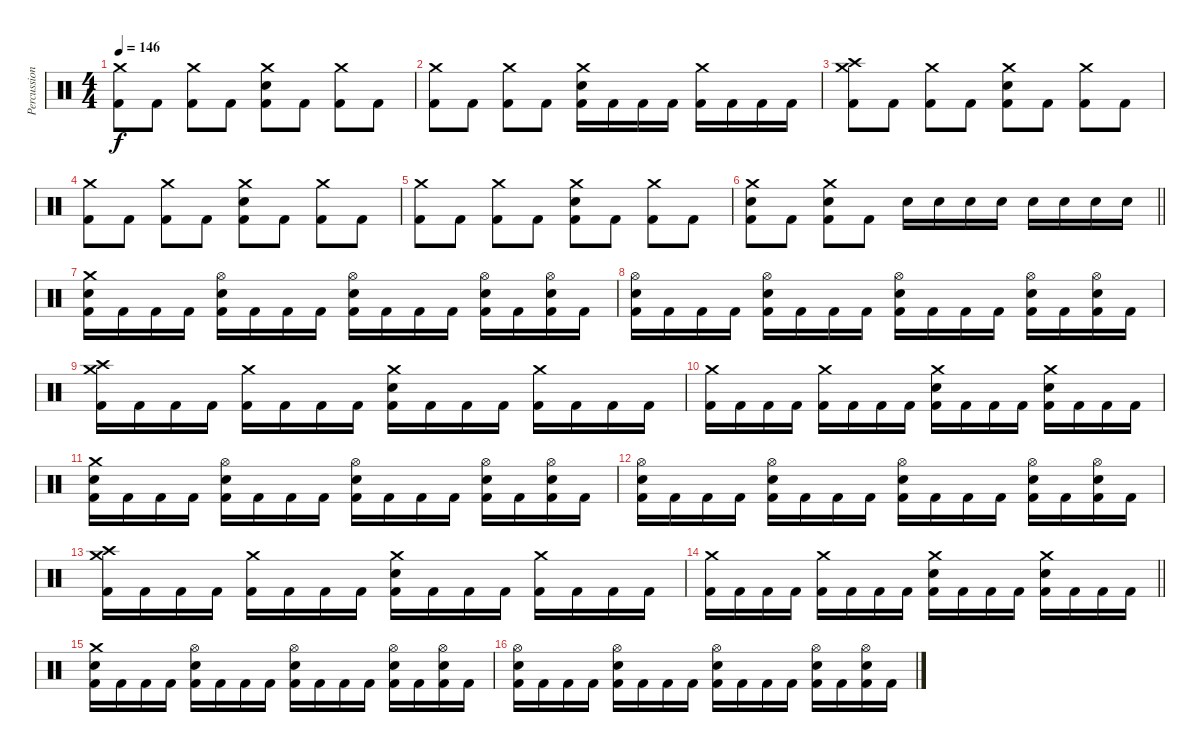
\track ("Percussion" "Percussion") {instrument percussion}
\staff {score}
\articulation defaults
\ts (4 4)
\tempo 146
\clef neutral
\ks c
("Crash medium (hit)" "Kick (hit) 2").8{dy f} "Kick (hit) 2".8 ("Crash medium (hit)" "Kick (hit) 2").8 "Kick (hit) 2".8 ("Crash medium (hit)" "Snare (hit) 2" "Kick (hit) 2").8 "Kick (hit) 2".8 ("Crash medium (hit)" "Kick (hit) 2").8 "Kick (hit) 2".8 |
("Crash medium (hit)" "Kick (hit) 2").8 "Kick (hit) 2".8 ("Crash medium (hit)" "Kick (hit) 2").8 "Kick (hit) 2".8 ("Crash medium (hit)" "Snare (hit) 2" "Kick (hit) 2").16 "Kick (hit) 2".16 "Kick (hit) 2".16 "Kick (hit) 2".16 ("Crash medium (hit)" "Kick (hit) 2").16 "Kick (hit) 2".16 "Kick (hit) 2".16 "Kick (hit) 2".16 |
("Crash high (hit)" "Crash medium (hit)" "Kick (hit) 2").8 "Kick (hit) 2".8 ("Crash medium (hit)" "Kick (hit) 2").8 "Kick (hit) 2".8 ("Crash medium (hit)" "Snare (hit) 2" "Kick (hit) 2").8 "Kick (hit) 2".8 ("Crash medium (hit)" "Kick (hit) 2").8 "Kick (hit) 2".8 |
("Crash medium (hit)" "Kick (hit) 2").8 "Kick (hit) 2".8 ("Crash medium (hit)" "Kick (hit) 2").8 "Kick (hit) 2".8 ("Crash medium (hit)" "Snare (hit) 2" "Kick (hit) 2").8 "Kick (hit) 2".8 ("Crash medium (hit)" "Kick (hit) 2").8 "Kick (hit) 2".8 |
("Crash medium (hit)" "Kick (hit) 2").8 "Kick (hit) 2".8 ("Crash medium (hit)" "Kick (hit) 2").8 "Kick (hit) 2".8 ("Crash medium (hit)" "Snare (hit) 2" "Kick (hit) 2").8 "Kick (hit) 2".8 ("Crash medium (hit)" "Kick (hit) 2").8 "Kick (hit) 2".8 |
\barLineRight lightlight
("Crash medium (hit)" "Snare (hit) 2" "Kick (hit) 2").8 "Kick (hit) 2".8 ("Crash medium (hit)" "Snare (hit) 2" "Kick (hit) 2").8 "Kick (hit) 2".8 "Snare (hit) 2".16 "Snare (hit) 2".16 "Snare (hit) 2".16 "Snare (hit) 2".16 "Snare (hit) 2".16 "Snare (hit) 2".16 "Snare (hit) 2".16 "Snare (hit) 2".16 |
("Crash medium (hit)" "Snare (hit) 2" "Kick (hit) 2").16 "Kick (hit) 2".16 "Kick (hit) 2".16 "Kick (hit) 2".16 ("Hi-Hat (open)" "Snare (hit) 2" "Kick (hit) 2").16 "Kick (hit) 2".16 "Kick (hit) 2".16 "Kick (hit) 2".16 ("Hi-Hat (open)" "Snare (hit) 2" "Kick (hit) 2").16 "Kick (hit) 2".16 "Kick (hit) 2".16 "Kick (hit) 2".16 ("Hi-Hat (open)" "Snare (hit) 2" "Kick (hit) 2").16 "Kick (hit) 2".16 ("Hi-Hat (open)" "Snare (hit) 2" "Kick (hit) 2").16 "Kick (hit) 2".16 |
("Hi-Hat (open)" "Snare (hit) 2" "Kick (hit) 2").16 "Kick (hit) 2".16 "Kick (hit) 2".16 "Kick (hit) 2".16 ("Hi-Hat (open)" "Snare (hit) 2" "Kick (hit) 2").16 "Kick (hit) 2".16 "Kick (hit) 2".16 "Kick (hit) 2".16 ("Hi-Hat (open)" "Snare (hit) 2" "Kick (hit) 2").16 "Kick (hit) 2".16 "Kick (hit) 2".16 "Kick (hit) 2".16 ("Hi-Hat (open)" "Snare (hit) 2" "Kick (hit) 2").16 "Kick (hit) 2".16 ("Hi-Hat (open)" "Snare (hit) 2" "Kick (hit) 2").16 "Kick (hit) 2".16 |
("Crash high (hit)" "Crash medium (hit)" "Kick (hit) 2").16 "Kick (hit) 2".16 "Kick (hit) 2".16 "Kick (hit) 2".16 ("Crash medium (hit)" "Kick (hit) 2").16 "Kick (hit) 2".16 "Kick (hit) 2".16 "Kick (hit) 2".16 ("Crash medium (hit)" "Snare (hit) 2" "Kick (hit) 2").16 "Kick (hit) 2".16 "Kick (hit) 2".16 "Kick (hit) 2".16 ("Crash medium (hit)" "Kick (hit) 2").16 "Kick (hit) 2".16 "Kick (hit) 2".16 "Kick (hit) 2".16 |
("Crash medium (hit)" "Kick (hit) 2").16 "Kick (hit) 2".16 "Kick (hit) 2".16 "Kick (hit) 2".16 ("Crash medium (hit)" "Kick (hit) 2").16 "Kick (hit) 2".16 "Kick (hit) 2".16 "Kick (hit) 2".16 ("Crash medium (hit)" "Snare (hit) 2" "Kick (hit) 2").16 "Kick (hit) 2".16 "Kick (hit) 2".16 "Kick (hit) 2".16 ("Crash medium (hit)" "Snare (hit) 2" "Kick (hit) 2").16 "Kick (hit) 2".16 "Kick (hit) 2".16 "Kick (hit) 2".16 |
("Crash medium (hit)" "Snare (hit) 2" "Kick (hit) 2").16 "Kick (hit) 2".16 "Kick (hit) 2".16 "Kick (hit) 2".16 ("Hi-Hat (open)" "Snare (hit) 2" "Kick (hit) 2").16 "Kick (hit) 2".16 "Kick (hit) 2".16 "Kick (hit) 2".16 ("Hi-Hat (open)" "Snare (hit) 2" "Kick (hit) 2").16 "Kick (hit) 2".16 "Kick (hit) 2".16 "Kick (hit) 2".16 ("Hi-Hat (open)" "Snare (hit) 2" "Kick (hit) 2").16 "Kick (hit) 2".16 ("Hi-Hat (open)" "Snare (hit) 2" "Kick (hit) 2").16 "Kick (hit) 2".16 |
("Hi-Hat (open)" "Snare (hit) 2" "Kick (hit) 2").16 "Kick (hit) 2".16 "Kick (hit) 2".16 "Kick (hit) 2".16 ("Hi-Hat (open)" "Snare (hit) 2" "Kick (hit) 2").16 "Kick (hit) 2".16 "Kick (hit) 2".16 "Kick (hit) 2".16 ("Hi-Hat (open)" "Snare (hit) 2" "Kick (hit) 2").16 "Kick (hit) 2".16 "Kick (hit) 2".16 "Kick (hit) 2".16 ("Hi-Hat (open)" "Snare (hit) 2" "Kick (hit) 2").16 "Kick (hit) 2".16 ("Hi-Hat (open)" "Snare (hit) 2" "Kick (hit) 2").16 "Kick (hit) 2".16 |
("Crash high (hit)" "Crash medium (hit)" "Kick (hit) 2").16 "Kick (hit) 2".16 "Kick (hit) 2".16 "Kick (hit) 2".16 ("Crash medium (hit)" "Kick (hit) 2").16 "Kick (hit) 2".16 "Kick (hit) 2".16 "Kick (hit) 2".16 ("Crash medium (hit)" "Snare (hit) 2" "Kick (hit) 2").16 "Kick (hit) 2".16 "Kick (hit) 2".16 "Kick (hit) 2".16 ("Crash medium (hit)" "Kick (hit) 2").16 "Kick (hit) 2".16 "Kick (hit) 2".16 "Kick (hit) 2".16 |
\barLineRight lightlight
("Crash medium (hit)" "Kick (hit) 2").16 "Kick (hit) 2".16 "Kick (hit) 2".16 "Kick (hit) 2".16 ("Crash medium (hit)" "Kick (hit) 2").16 "Kick (hit) 2".16 "Kick (hit) 2".16 "Kick (hit) 2".16 ("Crash medium (hit)" "Snare (hit) 2" "Kick (hit) 2").16 "Kick (hit) 2".16 "Kick (hit) 2".16 "Kick (hit) 2".16 ("Crash medium (hit)" "Snare (hit) 2" "Kick (hit) 2").16 "Kick (hit) 2".16 "Kick (hit) 2".16 "Kick (hit) 2".16 |
("Crash medium (hit)" "Snare (hit) 2" "Kick (hit) 2").16 "Kick (hit) 2".16 "Kick (hit) 2".16 "Kick (hit) 2".16 ("Hi-Hat (open)" "Snare (hit) 2" "Kick (hit) 2").16 "Kick (hit) 2".16 "Kick (hit) 2".16 "Kick (hit) 2".16 ("Hi-Hat (open)" "Snare (hit) 2" "Kick (hit) 2").16 "Kick (hit) 2".16 "Kick (hit) 2".16 "Kick (hit) 2".16 ("Hi-Hat (open)" "Snare (hit) 2" "Kick (hit) 2").16 "Kick (hit) 2".16 ("Hi-Hat (open)" "Snare (hit) 2" "Kick (hit) 2").16 "Kick (hit) 2".16 |
("Hi-Hat (open)" "Snare (hit) 2" "Kick (hit) 2").16 "Kick (hit) 2".16 "Kick (hit) 2".16 "Kick (hit) 2".16 ("Hi-Hat (open)" "Snare (hit) 2" "Kick (hit) 2").16 "Kick (hit) 2".16 "Kick (hit) 2".16 "Kick (hit) 2".16 ("Hi-Hat (open)" "Snare (hit) 2" "Kick (hit) 2").16 "Kick (hit) 2".16 "Kick (hit) 2".16 "Kick (hit) 2".16 ("Hi-Hat (open)" "Snare (hit) 2" "Kick (hit) 2").16 "Kick (hit) 2".16 ("Hi-Hat (open)" "Snare (hit) 2" "Kick (hit) 2").16 "Kick (hit) 2".16
